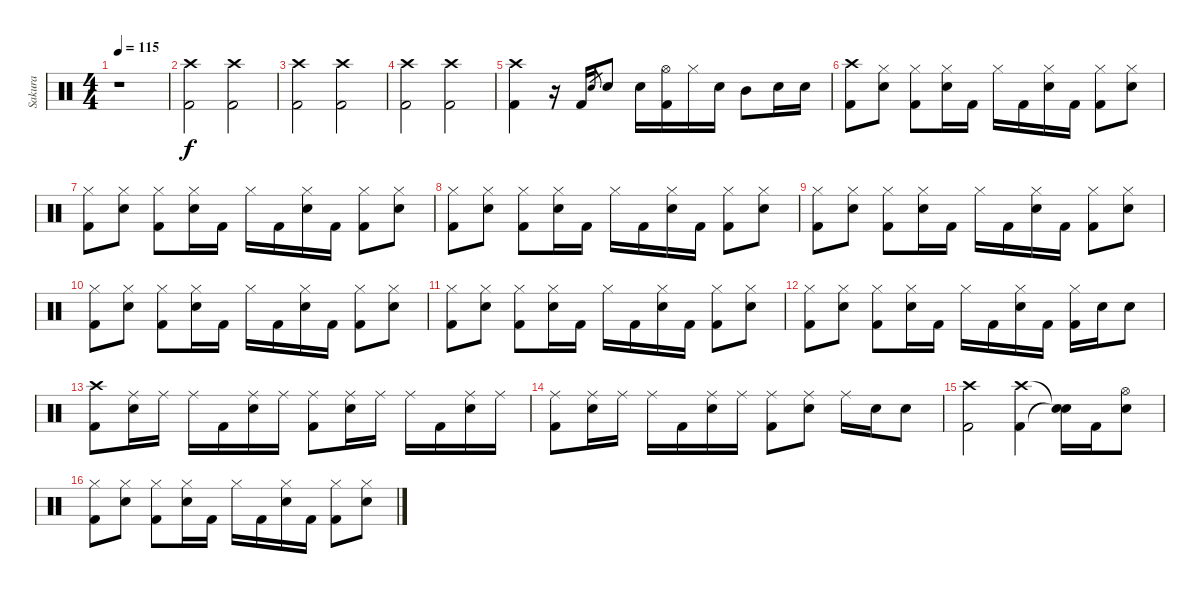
\track ("Sakura" "Sakura") {instrument percussion}
\staff {score}
\articulation defaults
\ts (4 4)
\tempo 115
\clef neutral
\ks c
r.1{dy f} |
("Crash high (hit)" "Kick (hit) 2").2 ("Crash high (hit)" "Kick (hit) 2").2 |
("Crash high (hit)" "Kick (hit) 2").2 ("Crash high (hit)" "Kick (hit) 2").2 |
("Crash high (hit)" "Kick (hit) 2").2 ("Crash high (hit)" "Kick (hit) 2").2 |
("Crash high (hit)" "Kick (hit) 2").4 r.16 "Kick (hit) 2".16 "Electric Snare (hit)".8{gr} "Electric Snare (hit)".8 "Electric Snare (hit)".16 ("Hi-Hat (open)" "Kick (hit) 2").16 "Hi-Hat (closed)".16 "Electric Snare (hit)".16 "Mid Tom (hit)".8 "Electric Snare (hit)".16 "Electric Snare (hit)".16 |
("Crash high (hit)" "Kick (hit) 2").8 ("Hi-Hat (closed)" "Electric Snare (hit)").8 ("Hi-Hat (closed)" "Kick (hit) 2").8 ("Hi-Hat (closed)" "Electric Snare (hit)").16 "Kick (hit) 2".16 "Hi-Hat (closed)".16 "Kick (hit) 2".16 ("Hi-Hat (closed)" "Electric Snare (hit)").16 "Kick (hit) 2".16 ("Hi-Hat (closed)" "Kick (hit) 2").8 ("Hi-Hat (closed)" "Electric Snare (hit)").8 |
("Hi-Hat (closed)" "Kick (hit) 2").8 ("Hi-Hat (closed)" "Electric Snare (hit)").8 ("Hi-Hat (closed)" "Kick (hit) 2").8 ("Hi-Hat (closed)" "Electric Snare (hit)").16 "Kick (hit) 2".16 "Hi-Hat (closed)".16 "Kick (hit) 2".16 ("Hi-Hat (closed)" "Electric Snare (hit)").16 "Kick (hit) 2".16 ("Hi-Hat (closed)" "Kick (hit) 2").8 ("Hi-Hat (closed)" "Electric Snare (hit)").8 |
("Hi-Hat (closed)" "Kick (hit) 2").8 ("Hi-Hat (closed)" "Electric Snare (hit)").8 ("Hi-Hat (closed)" "Kick (hit) 2").8 ("Hi-Hat (closed)" "Electric Snare (hit)").16 "Kick (hit) 2".16 "Hi-Hat (closed)".16 "Kick (hit) 2".16 ("Hi-Hat (closed)" "Electric Snare (hit)").16 "Kick (hit) 2".16 ("Hi-Hat (closed)" "Kick (hit) 2").8 ("Hi-Hat (closed)" "Electric Snare (hit)").8 |
("Hi-Hat (closed)" "Kick (hit) 2").8 ("Hi-Hat (closed)" "Electric Snare (hit)").8 ("Hi-Hat (closed)" "Kick (hit) 2").8 ("Hi-Hat (closed)" "Electric Snare (hit)").16 "Kick (hit) 2".16 "Hi-Hat (closed)".16 "Kick (hit) 2".16 ("Hi-Hat (closed)" "Electric Snare (hit)").16 "Kick (hit) 2".16 ("Hi-Hat (closed)" "Kick (hit) 2").8 ("Hi-Hat (closed)" "Electric Snare (hit)").8 |
("Hi-Hat (closed)" "Kick (hit) 2").8 ("Hi-Hat (closed)" "Electric Snare (hit)").8 ("Hi-Hat (closed)" "Kick (hit) 2").8 ("Hi-Hat (closed)" "Electric Snare (hit)").16 "Kick (hit) 2".16 "Hi-Hat (closed)".16 "Kick (hit) 2".16 ("Hi-Hat (closed)" "Electric Snare (hit)").16 "Kick (hit) 2".16 ("Hi-Hat (closed)" "Kick (hit) 2").8 ("Hi-Hat (closed)" "Electric Snare (hit)").8 |
("Hi-Hat (closed)" "Kick (hit) 2").8 ("Hi-Hat (closed)" "Electric Snare (hit)").8 ("Hi-Hat (closed)" "Kick (hit) 2").8 ("Hi-Hat (closed)" "Electric Snare (hit)").16 "Kick (hit) 2".16 "Hi-Hat (closed)".16 "Kick (hit) 2".16 ("Hi-Hat (closed)" "Electric Snare (hit)").16 "Kick (hit) 2".16 ("Hi-Hat (closed)" "Kick (hit) 2").8 ("Hi-Hat (closed)" "Electric Snare (hit)").8 |
("Hi-Hat (closed)" "Kick (hit) 2").8 ("Hi-Hat (closed)" "Electric Snare (hit)").8 ("Hi-Hat (closed)" "Kick (hit) 2").8 ("Hi-Hat (closed)" "Electric Snare (hit)").16 "Kick (hit) 2".16 "Hi-Hat (closed)".16 "Kick (hit) 2".16 ("Hi-Hat (closed)" "Electric Snare (hit)").16 "Kick (hit) 2".16 ("Hi-Hat (closed)" "Kick (hit) 2").16 "Electric Snare (hit)".16 "Electric Snare (hit)".8 |
("Crash high (hit)" "Kick (hit) 2").8 ("Ride (middle)" "Electric Snare (hit)").16 "Ride (middle)".16 "Ride (middle)".16 "Kick (hit) 2".16 ("Ride (middle)" "Electric Snare (hit)").16 "Ride (middle)".16 ("Ride (middle)" "Kick (hit) 2").8 ("Ride (middle)" "Electric Snare (hit)").16 "Ride (middle)".16 "Ride (middle)".16 "Kick (hit) 2".16 ("Ride (middle)" "Electric Snare (hit)").16 "Ride (middle)".16 |
("Ride (middle)" "Kick (hit) 2").8 ("Ride (middle)" "Electric Snare (hit)").16 "Ride (middle)".16 "Ride (middle)".16 "Kick (hit) 2".16 ("Ride (middle)" "Electric Snare (hit)").16 "Ride (middle)".16 ("Ride (middle)" "Kick (hit) 2").8 ("Ride (middle)" "Electric Snare (hit)").8 "Ride (middle)".16 "Electric Snare (hit)".16 "Electric Snare (hit)".8 |
("Crash high (hit)" "Kick (hit) 2").2 ("Crash high (hit)" "Kick (hit) 2").4 ("Snare (hit)"{t} "Snare (hit)"{t}).16 "Kick (hit) 2".16 ("Hi-Hat (open)" "Electric Snare (hit)").8 |
("Hi-Hat (closed)" "Kick (hit) 2").8 ("Hi-Hat (closed)" "Electric Snare (hit)").8 ("Hi-Hat (closed)" "Kick (hit) 2").8 ("Hi-Hat (closed)" "Electric Snare (hit)").16 "Kick (hit) 2".16 "Hi-Hat (closed)".16 "Kick (hit) 2".16 ("Hi-Hat (closed)" "Electric Snare (hit)").16 "Kick (hit) 2".16 ("Hi-Hat (closed)" "Kick (hit) 2").8 ("Hi-Hat (closed)" "Electric Snare (hit)").8
